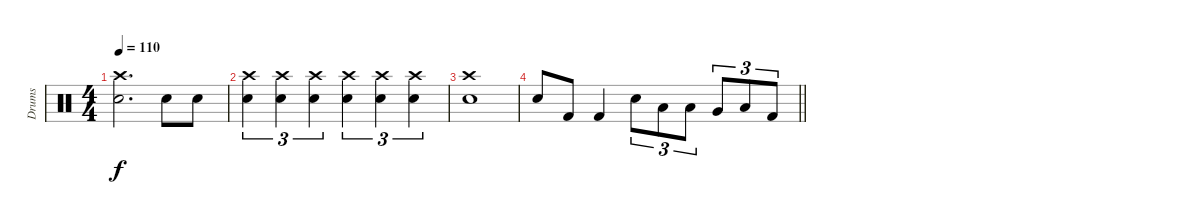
\track ("Drums" "Drums") {instrument percussion}
\staff {score}
\articulation defaults
\ts (4 4)
\tempo 110
\clef neutral
\ks c
("Snare (hit) 2" "Crash high (hit)").2{d dy f} "Snare (hit) 2".8 "Snare (hit) 2".8 |
("Snare (hit) 2" "Crash high (hit)").4{tu (3 2)} ("Snare (hit) 2" "Crash high (hit)").4{tu (3 2)} ("Snare (hit) 2" "Crash high (hit)").4{tu (3 2)} ("Snare (hit) 2" "Crash high (hit)").4{tu (3 2)} ("Snare (hit) 2" "Crash high (hit)").4{tu (3 2)} ("Snare (hit) 2" "Crash high (hit)").4{tu (3 2)} |
("Snare (hit) 2" "Crash high (hit)").1 |
\barLineRight lightlight "Snare (hit) 2".8 "Kick (hit) 2".8 "Kick (hit) 2".4 "Snare (hit) 2".8{tu (3 2)} "Low Tom (hit)".8{tu (3 2)} "Low Tom (hit)".8{tu (3 2)} "Very Low Tom (hit)".8{tu (3 2)} "Low Floor Tom (hit)".8{tu (3 2)} "Kick (hit) 2".8{tu (3 2)}
